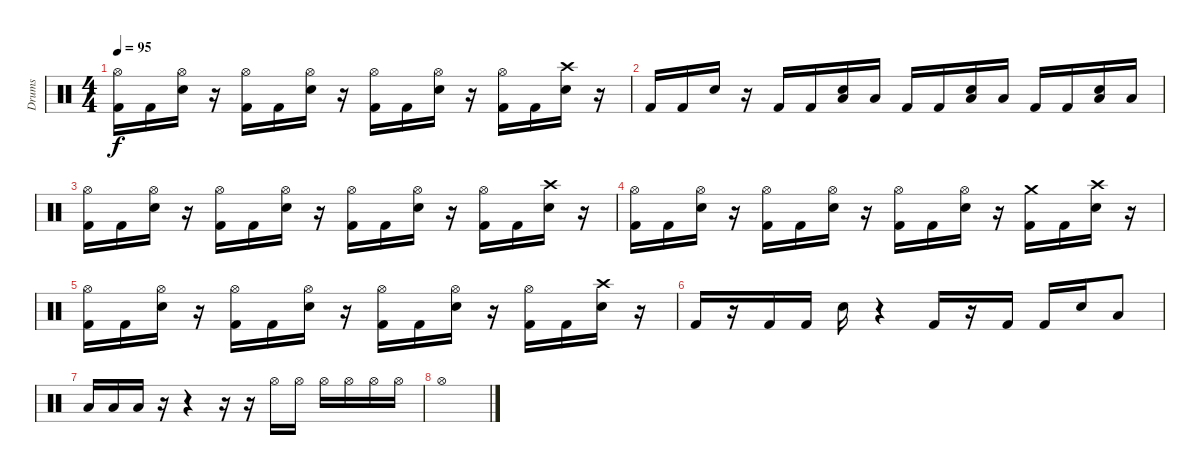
\track ("Drums" "Drums") {instrument percussion}
\staff {score}
\articulation defaults
\ts (4 4)
\tempo 95
\clef neutral
\ks c
("Kick (hit) 2" "Hi-Hat (open)").16{dy f} "Kick (hit) 2".16 ("Snare (hit) 2" "Hi-Hat (open)").16 r.16 ("Kick (hit) 2" "Hi-Hat (open)").16 "Kick (hit) 2".16 ("Snare (hit) 2" "Hi-Hat (open)").16 r.16 ("Kick (hit) 2" "Hi-Hat (open)").16 "Kick (hit) 2".16 ("Snare (hit) 2" "Hi-Hat (open)").16 r.16 ("Kick (hit) 2" "Hi-Hat (open)").16 "Kick (hit) 2".16 ("Snare (hit) 2" "Crash high (hit)").16 r.16 |
"Kick (hit) 2".16 "Kick (hit) 2".16 "Snare (hit) 2".16 r.16 "Kick (hit) 2".16 "Kick (hit) 2".16 ("Snare (hit) 2" "Low Tom (hit)").16 "Low Tom (hit)".16 "Kick (hit) 2".16 "Kick (hit) 2".16 ("Snare (hit) 2" "Low Tom (hit)").16 "Low Tom (hit)".16 "Kick (hit) 2".16 "Kick (hit) 2".16 ("Snare (hit) 2" "Low Tom (hit)").16 "Low Tom (hit)".16 |
("Kick (hit) 2" "Hi-Hat (open)").16 "Kick (hit) 2".16 ("Snare (hit) 2" "Hi-Hat (open)").16 r.16 ("Kick (hit) 2" "Hi-Hat (open)").16 "Kick (hit) 2".16 ("Snare (hit) 2" "Hi-Hat (open)").16 r.16 ("Kick (hit) 2" "Hi-Hat (open)").16 "Kick (hit) 2".16 ("Snare (hit) 2" "Hi-Hat (open)").16 r.16 ("Kick (hit) 2" "Hi-Hat (open)").16 "Kick (hit) 2".16 ("Snare (hit) 2" "Crash high (hit)").16 r.16 |
("Kick (hit) 2" "Hi-Hat (open)").16 "Kick (hit) 2".16 ("Snare (hit) 2" "Hi-Hat (open)").16 r.16 ("Kick (hit) 2" "Hi-Hat (open)").16 "Kick (hit) 2".16 ("Snare (hit) 2" "Hi-Hat (open)").16 r.16 ("Kick (hit) 2" "Hi-Hat (open)").16 "Kick (hit) 2".16 ("Snare (hit) 2" "Hi-Hat (open)").16 r.16 ("Kick (hit) 2" "Crash medium (hit)").16 "Kick (hit) 2".16 ("Snare (hit) 2" "Crash high (hit)").16 r.16 |
("Kick (hit) 2" "Hi-Hat (open)").16 "Kick (hit) 2".16 ("Snare (hit) 2" "Hi-Hat (open)").16 r.16 ("Kick (hit) 2" "Hi-Hat (open)").16 "Kick (hit) 2".16 ("Snare (hit) 2" "Hi-Hat (open)").16 r.16 ("Kick (hit) 2" "Hi-Hat (open)").16 "Kick (hit) 2".16 ("Snare (hit) 2" "Hi-Hat (open)").16 r.16 ("Kick (hit) 2" "Hi-Hat (open)").16 "Kick (hit) 2".16 ("Snare (hit) 2" "Crash high (hit)").16 r.16 |
"Kick (hit) 2".16 r.16 "Kick (hit) 2".16 "Kick (hit) 2".16 "Snare (hit) 2".16 r.4 "Kick (hit) 2".16 r.16 "Kick (hit) 2".16 "Kick (hit) 2".16 "Snare (hit) 2".16 "Low Tom (hit)".8 |
"Low Tom (hit)".16 "Low Tom (hit)".16 "Low Tom (hit)".16 r.16 r.4 r.16 r.16 "Hi-Hat (open)".16 "Hi-Hat (open)".16 "Hi-Hat (open)".16 "Hi-Hat (open)".16 "Hi-Hat (open)".16 "Hi-Hat (open)".16 |
"Hi-Hat (open)".1
